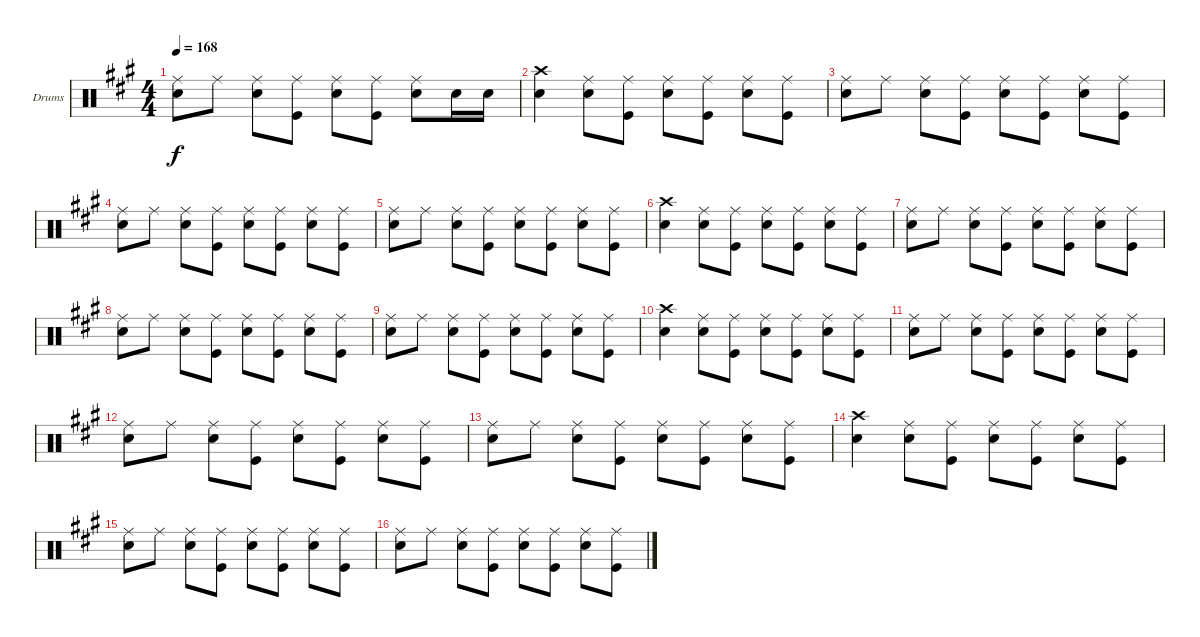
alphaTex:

\defaultSystemsLayout 4
\bracketExtendMode groupsimilarinstruments
\firstSystemTrackNameOrientation horizontal
\otherSystemsTrackNameOrientation horizontal
\track ("Drumkit" "Drums") {instrument percussion}
\staff {score}
\articulation defaults
\ts (4 4)
\tempo 168
\clef neutral
\scale
1.05801
\ks a
("Ride (middle)" "Snare (hit) 2").8{dy f} "Ride (middle)".8 ("Ride (middle)" "Snare (hit) 2").8 ("Ride (middle)" "Kick (hit)").8 ("Ride (middle)" "Snare (hit) 2").8 ("Ride (middle)" "Kick (hit)").8 ("Ride (middle)" "Snare (hit) 2").8 "Snare (hit) 2".16 "Snare (hit) 2".16 |
\scale
0.941992 ("Crash high (hit)" "Snare (hit) 2").4 ("Ride (middle)" "Snare (hit) 2").8 ("Ride (middle)" "Kick (hit)").8 ("Ride (middle)" "Snare (hit) 2").8 ("Ride (middle)" "Kick (hit)").8 ("Ride (middle)" "Snare (hit) 2").8 ("Ride (middle)" "Kick (hit)").8 |
\scale
1.05801 ("Ride (middle)" "Snare (hit) 2").8 "Ride (middle)".8 ("Ride (middle)" "Snare (hit) 2").8 ("Ride (middle)" "Kick (hit)").8 ("Ride (middle)" "Snare (hit) 2").8 ("Ride (middle)" "Kick (hit)").8 ("Ride (middle)" "Snare (hit) 2").8 ("Ride (middle)" "Kick (hit)").8 |
\scale
0.941992 ("Ride (middle)" "Snare (hit) 2").8 "Ride (middle)".8 ("Ride (middle)" "Snare (hit) 2").8 ("Ride (middle)" "Kick (hit)").8 ("Ride (middle)" "Snare (hit) 2").8 ("Ride (middle)" "Kick (hit)").8 ("Ride (middle)" "Snare (hit) 2").8 ("Ride (middle)" "Kick (hit)").8 |
\scale
1.05801 ("Ride (middle)" "Snare (hit) 2").8 "Ride (middle)".8 ("Ride (middle)" "Snare (hit) 2").8 ("Ride (middle)" "Kick (hit)").8 ("Ride (middle)" "Snare (hit) 2").8 ("Ride (middle)" "Kick (hit)").8 ("Ride (middle)" "Snare (hit) 2").8 ("Ride (middle)" "Kick (hit)").8 |
\scale
0.941992 ("Crash high (hit)" "Snare (hit) 2").4 ("Ride (middle)" "Snare (hit) 2").8 ("Ride (middle)" "Kick (hit)").8 ("Ride (middle)" "Snare (hit) 2").8 ("Ride (middle)" "Kick (hit)").8 ("Ride (middle)" "Snare (hit) 2").8 ("Ride (middle)" "Kick (hit)").8 |
\scale
1.05801 ("Ride (middle)" "Snare (hit) 2").8 "Ride (middle)".8 ("Ride (middle)" "Snare (hit) 2").8 ("Ride (middle)" "Kick (hit)").8 ("Ride (middle)" "Snare (hit) 2").8 ("Ride (middle)" "Kick (hit)").8 ("Ride (middle)" "Snare (hit) 2").8 ("Ride (middle)" "Kick (hit)").8 |
\scale
0.941992 ("Ride (middle)" "Snare (hit) 2").8 "Ride (middle)".8 ("Ride (middle)" "Snare (hit) 2").8 ("Ride (middle)" "Kick (hit)").8 ("Ride (middle)" "Snare (hit) 2").8 ("Ride (middle)" "Kick (hit)").8 ("Ride (middle)" "Snare (hit) 2").8 ("Ride (middle)" "Kick (hit)").8 |
\scale
1.05801 ("Ride (middle)" "Snare (hit) 2").8 "Ride (middle)".8 ("Ride (middle)" "Snare (hit) 2").8 ("Ride (middle)" "Kick (hit)").8 ("Ride (middle)" "Snare (hit) 2").8 ("Ride (middle)" "Kick (hit)").8 ("Ride (middle)" "Snare (hit) 2").8 ("Ride (middle)" "Kick (hit)").8 |
\scale
0.941992 ("Crash high (hit)" "Snare (hit) 2").4 ("Ride (middle)" "Snare (hit) 2").8 ("Ride (middle)" "Kick (hit)").8 ("Ride (middle)" "Snare (hit) 2").8 ("Ride (middle)" "Kick (hit)").8 ("Ride (middle)" "Snare (hit) 2").8 ("Ride (middle)" "Kick (hit)").8 |
\scale
1.05801 ("Ride (middle)" "Snare (hit) 2").8 "Ride (middle)".8 ("Ride (middle)" "Snare (hit) 2").8 ("Ride (middle)" "Kick (hit)").8 ("Ride (middle)" "Snare (hit) 2").8 ("Ride (middle)" "Kick (hit)").8 ("Ride (middle)" "Snare (hit) 2").8 ("Ride (middle)" "Kick (hit)").8 |
\scale
0.941992 ("Ride (middle)" "Snare (hit) 2").8 "Ride (middle)".8 ("Ride (middle)" "Snare (hit) 2").8 ("Ride (middle)" "Kick (hit)").8 ("Ride (middle)" "Snare (hit) 2").8 ("Ride (middle)" "Kick (hit)").8 ("Ride (middle)" "Snare (hit) 2").8 ("Ride (middle)" "Kick (hit)").8 |
\scale
1.05801 ("Ride (middle)" "Snare (hit) 2").8 "Ride (middle)".8 ("Ride (middle)" "Snare (hit) 2").8 ("Ride (middle)" "Kick (hit)").8 ("Ride (middle)" "Snare (hit) 2").8 ("Ride (middle)" "Kick (hit)").8 ("Ride (middle)" "Snare (hit) 2").8 ("Ride (middle)" "Kick (hit)").8 |
\scale
0.941992 ("Crash high (hit)" "Snare (hit) 2").4 ("Ride (middle)" "Snare (hit) 2").8 ("Ride (middle)" "Kick (hit)").8 ("Ride (middle)" "Snare (hit) 2").8 ("Ride (middle)" "Kick (hit)").8 ("Ride (middle)" "Snare (hit) 2").8 ("Ride (middle)" "Kick (hit)").8 |
\scale
1.05801 ("Ride (middle)" "Snare (hit) 2").8 "Ride (middle)".8 ("Ride (middle)" "Snare (hit) 2").8 ("Ride (middle)" "Kick (hit)").8 ("Ride (middle)" "Snare (hit) 2").8 ("Ride (middle)" "Kick (hit)").8 ("Ride (middle)" "Snare (hit) 2").8 ("Ride (middle)" "Kick (hit)").8 |
\scale
0.941992 ("Ride (middle)" "Snare (hit) 2").8 "Ride (middle)".8 ("Ride (middle)" "Snare (hit) 2").8 ("Ride (middle)" "Kick (hit)").8 ("Ride (middle)" "Snare (hit) 2").8 ("Ride (middle)" "Kick (hit)").8 ("Ride (middle)" "Snare (hit) 2").8 ("Ride (middle)" "Kick (hit)").8
